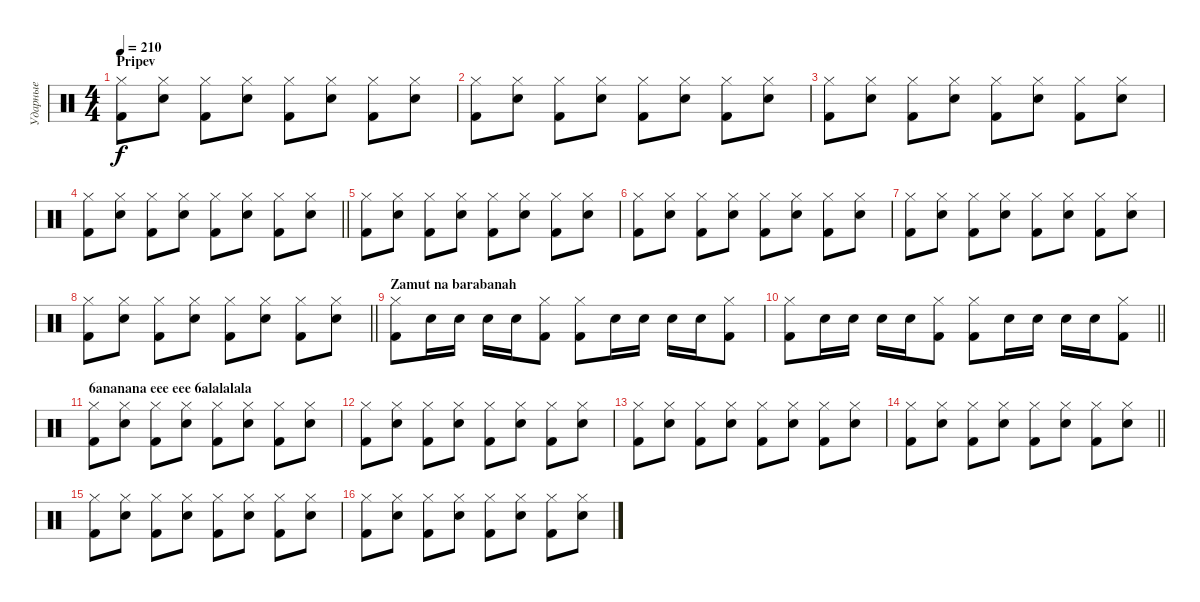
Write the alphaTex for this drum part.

\track ("Ударные" "Ударные") {instrument percussion}
\staff {score}
\articulation defaults
\ts (4 4)
\section ("" "Pripev")
\tempo 210
\clef neutral
\ks c
("Hi-Hat (closed)" "Kick (hit) 2").8{dy f} ("Hi-Hat (closed)" "Snare (hit) 2").8 ("Hi-Hat (closed)" "Kick (hit) 2").8 ("Hi-Hat (closed)" "Snare (hit) 2").8 ("Hi-Hat (closed)" "Kick (hit) 2").8 ("Hi-Hat (closed)" "Snare (hit) 2").8 ("Hi-Hat (closed)" "Kick (hit) 2").8 ("Hi-Hat (closed)" "Snare (hit) 2").8 |
("Hi-Hat (closed)" "Kick (hit) 2").8 ("Hi-Hat (closed)" "Snare (hit) 2").8 ("Hi-Hat (closed)" "Kick (hit) 2").8 ("Hi-Hat (closed)" "Snare (hit) 2").8 ("Hi-Hat (closed)" "Kick (hit) 2").8 ("Hi-Hat (closed)" "Snare (hit) 2").8 ("Hi-Hat (closed)" "Kick (hit) 2").8 ("Hi-Hat (closed)" "Snare (hit) 2").8 |
("Hi-Hat (closed)" "Kick (hit) 2").8 ("Hi-Hat (closed)" "Snare (hit) 2").8 ("Hi-Hat (closed)" "Kick (hit) 2").8 ("Hi-Hat (closed)" "Snare (hit) 2").8 ("Hi-Hat (closed)" "Kick (hit) 2").8 ("Hi-Hat (closed)" "Snare (hit) 2").8 ("Hi-Hat (closed)" "Kick (hit) 2").8 ("Hi-Hat (closed)" "Snare (hit) 2").8 |
\barLineRight lightlight
("Hi-Hat (closed)" "Kick (hit) 2").8 ("Hi-Hat (closed)" "Snare (hit) 2").8 ("Hi-Hat (closed)" "Kick (hit) 2").8 ("Hi-Hat (closed)" "Snare (hit) 2").8 ("Hi-Hat (closed)" "Kick (hit) 2").8 ("Hi-Hat (closed)" "Snare (hit) 2").8 ("Hi-Hat (closed)" "Kick (hit) 2").8 ("Hi-Hat (closed)" "Snare (hit) 2").8 |
("Hi-Hat (closed)" "Kick (hit) 2").8 ("Hi-Hat (closed)" "Snare (hit) 2").8 ("Hi-Hat (closed)" "Kick (hit) 2").8 ("Hi-Hat (closed)" "Snare (hit) 2").8 ("Hi-Hat (closed)" "Kick (hit) 2").8 ("Hi-Hat (closed)" "Snare (hit) 2").8 ("Hi-Hat (closed)" "Kick (hit) 2").8 ("Hi-Hat (closed)" "Snare (hit) 2").8 |
("Hi-Hat (closed)" "Kick (hit) 2").8 ("Hi-Hat (closed)" "Snare (hit) 2").8 ("Hi-Hat (closed)" "Kick (hit) 2").8 ("Hi-Hat (closed)" "Snare (hit) 2").8 ("Hi-Hat (closed)" "Kick (hit) 2").8 ("Hi-Hat (closed)" "Snare (hit) 2").8 ("Hi-Hat (closed)" "Kick (hit) 2").8 ("Hi-Hat (closed)" "Snare (hit) 2").8 |
("Hi-Hat (closed)" "Kick (hit) 2").8 ("Hi-Hat (closed)" "Snare (hit) 2").8 ("Hi-Hat (closed)" "Kick (hit) 2").8 ("Hi-Hat (closed)" "Snare (hit) 2").8 ("Hi-Hat (closed)" "Kick (hit) 2").8 ("Hi-Hat (closed)" "Snare (hit) 2").8 ("Hi-Hat (closed)" "Kick (hit) 2").8 ("Hi-Hat (closed)" "Snare (hit) 2").8 |
\barLineRight lightlight
("Hi-Hat (closed)" "Kick (hit) 2").8 ("Hi-Hat (closed)" "Snare (hit) 2").8 ("Hi-Hat (closed)" "Kick (hit) 2").8 ("Hi-Hat (closed)" "Snare (hit) 2").8 ("Hi-Hat (closed)" "Kick (hit) 2").8 ("Hi-Hat (closed)" "Snare (hit) 2").8 ("Hi-Hat (closed)" "Kick (hit) 2").8 ("Hi-Hat (closed)" "Snare (hit) 2").8 |
\section ("" "Zamut na barabanah")
("Hi-Hat (closed)" "Kick (hit) 2").8 "Electric Snare (hit)".16 "Electric Snare (hit)".16 "Electric Snare (hit)".16 "Electric Snare (hit)".16 ("Hi-Hat (closed)" "Kick (hit) 2").8 ("Hi-Hat (closed)" "Kick (hit) 2").8 "Electric Snare (hit)".16 "Electric Snare (hit)".16 "Electric Snare (hit)".16 "Electric Snare (hit)".16 ("Hi-Hat (closed)" "Kick (hit) 2").8 |
\barLineRight lightlight
("Hi-Hat (closed)" "Kick (hit) 2").8 "Electric Snare (hit)".16 "Electric Snare (hit)".16 "Electric Snare (hit)".16 "Electric Snare (hit)".16 ("Hi-Hat (closed)" "Kick (hit) 2").8 ("Hi-Hat (closed)" "Kick (hit) 2").8 "Electric Snare (hit)".16 "Electric Snare (hit)".16 "Electric Snare (hit)".16 "Electric Snare (hit)".16 ("Hi-Hat (closed)" "Kick (hit) 2").8 |
\section ("" "6ananana eee eee 6alalalala")
("Hi-Hat (closed)" "Kick (hit) 2").8 ("Hi-Hat (closed)" "Snare (hit) 2").8 ("Hi-Hat (closed)" "Kick (hit) 2").8 ("Hi-Hat (closed)" "Snare (hit) 2").8 ("Hi-Hat (closed)" "Kick (hit) 2").8 ("Hi-Hat (closed)" "Snare (hit) 2").8 ("Hi-Hat (closed)" "Kick (hit) 2").8 ("Hi-Hat (closed)" "Snare (hit) 2").8 |
("Hi-Hat (closed)" "Kick (hit) 2").8 ("Hi-Hat (closed)" "Snare (hit) 2").8 ("Hi-Hat (closed)" "Kick (hit) 2").8 ("Hi-Hat (closed)" "Snare (hit) 2").8 ("Hi-Hat (closed)" "Kick (hit) 2").8 ("Hi-Hat (closed)" "Snare (hit) 2").8 ("Hi-Hat (closed)" "Kick (hit) 2").8 ("Hi-Hat (closed)" "Snare (hit) 2").8 |
("Hi-Hat (closed)" "Kick (hit) 2").8 ("Hi-Hat (closed)" "Snare (hit) 2").8 ("Hi-Hat (closed)" "Kick (hit) 2").8 ("Hi-Hat (closed)" "Snare (hit) 2").8 ("Hi-Hat (closed)" "Kick (hit) 2").8 ("Hi-Hat (closed)" "Snare (hit) 2").8 ("Hi-Hat (closed)" "Kick (hit) 2").8 ("Hi-Hat (closed)" "Snare (hit) 2").8 |
\barLineRight lightlight
("Hi-Hat (closed)" "Kick (hit) 2").8 ("Hi-Hat (closed)" "Snare (hit) 2").8 ("Hi-Hat (closed)" "Kick (hit) 2").8 ("Hi-Hat (closed)" "Snare (hit) 2").8 ("Hi-Hat (closed)" "Kick (hit) 2").8 ("Hi-Hat (closed)" "Snare (hit) 2").8 ("Hi-Hat (closed)" "Kick (hit) 2").8 ("Hi-Hat (closed)" "Snare (hit) 2").8 |
("Hi-Hat (closed)" "Kick (hit) 2").8 ("Hi-Hat (closed)" "Snare (hit) 2").8 ("Hi-Hat (closed)" "Kick (hit) 2").8 ("Hi-Hat (closed)" "Snare (hit) 2").8 ("Hi-Hat (closed)" "Kick (hit) 2").8 ("Hi-Hat (closed)" "Snare (hit) 2").8 ("Hi-Hat (closed)" "Kick (hit) 2").8 ("Hi-Hat (closed)" "Snare (hit) 2").8 |
("Hi-Hat (closed)" "Kick (hit) 2").8 ("Hi-Hat (closed)" "Snare (hit) 2").8 ("Hi-Hat (closed)" "Kick (hit) 2").8 ("Hi-Hat (closed)" "Snare (hit) 2").8 ("Hi-Hat (closed)" "Kick (hit) 2").8 ("Hi-Hat (closed)" "Snare (hit) 2").8 ("Hi-Hat (closed)" "Kick (hit) 2").8 ("Hi-Hat (closed)" "Snare (hit) 2").8
